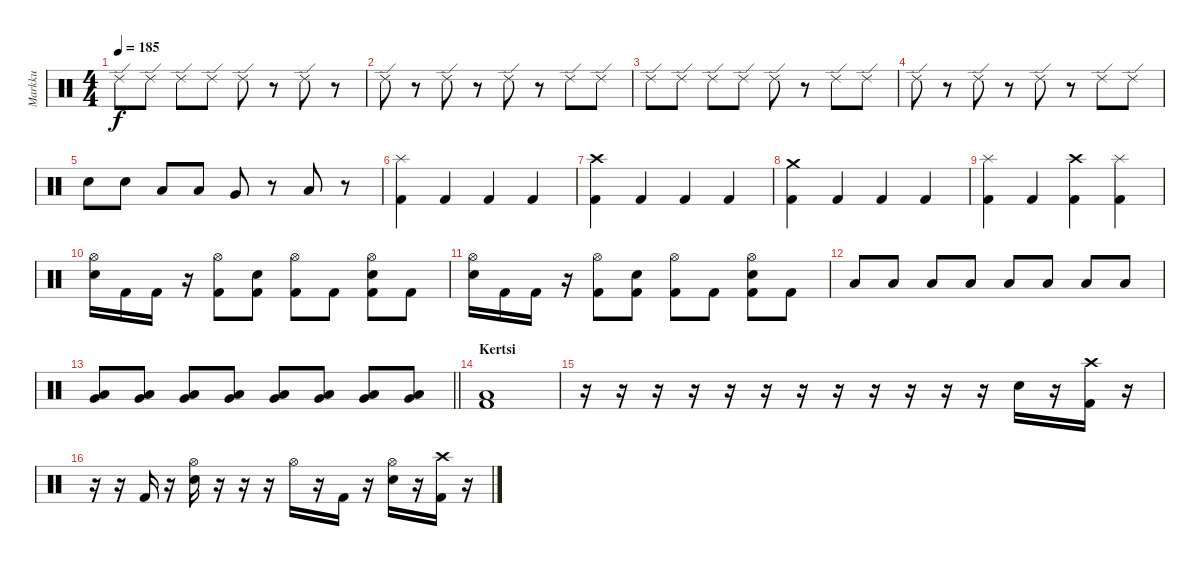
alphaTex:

\track ("Markku" "Markku") {instrument percussion}
\staff {score}
\articulation defaults
\ts (4 4)
\tempo 185
\clef neutral
\ks c "Ride (edge) 2".8{dy f} "Ride (edge) 2".8 "Ride (edge) 2".8 "Ride (edge) 2".8 "Ride (edge) 2".8
r.8 "Ride (edge) 2".8 r.8 |
"Ride (edge) 2".8 r.8 "Ride (edge) 2".8 r.8 "Ride (edge) 2".8 r.8 "Ride (edge) 2".8 "Ride (edge) 2".8 |
"Ride (edge) 2".8 "Ride (edge) 2".8 "Ride (edge) 2".8 "Ride (edge) 2".8 "Ride (edge) 2".8 r.8 "Ride (edge) 2".8 "Ride (edge) 2".8 |
"Ride (edge) 2".8 r.8 "Ride (edge) 2".8 r.8 "Ride (edge) 2".8 r.8 "Ride (edge) 2".8 "Ride (edge) 2".8 |
"Snare (hit) 2".8 "Snare (hit) 2".8 "Low Tom (hit)".8 "Low Tom (hit)".8 "Very Low Tom (hit)".8 r.8 "Low Floor Tom (hit)".8 r.8 |
("Kick (hit) 2" "Splash (hit)").4 "Kick (hit) 2".4 "Kick (hit) 2".4 "Kick (hit) 2".4 |
("Kick (hit) 2" "Crash high (hit)").4 "Kick (hit) 2".4 "Kick (hit) 2".4 "Kick (hit) 2".4 |
("Kick (hit) 2" "Crash medium (hit)").4 "Kick (hit) 2".4 "Kick (hit) 2".4 "Kick (hit) 2".4 |
("Kick (hit) 2" "Splash (hit)").4 "Kick (hit) 2".4 ("Kick (hit) 2" "Crash high (hit)").4 ("Kick (hit) 2" "Splash (hit)").4 |
("Snare (hit) 2" "Hi-Hat (open)").16 "Kick (hit) 2".16 "Kick (hit) 2".16 r.16 ("Kick (hit) 2" "Hi-Hat (open)").8 ("Kick (hit) 2" "Snare (hit) 2").8 ("Kick (hit) 2" "Hi-Hat (open)").8 "Kick (hit) 2".8 ("Kick (hit) 2" "Snare (hit) 2" "Hi-Hat (open)").8 "Kick (hit) 2".8 |
("Snare (hit) 2" "Hi-Hat (open)").16 "Kick (hit) 2".16 "Kick (hit) 2".16 r.16 ("Kick (hit) 2" "Hi-Hat (open)").8 ("Kick (hit) 2" "Snare (hit) 2").8 ("Kick (hit) 2" "Hi-Hat (open)").8 "Kick (hit) 2".8 ("Kick (hit) 2" "Snare (hit) 2" "Hi-Hat (open)").8 "Kick (hit) 2".8 |
"Low Tom (hit)".8 "Low Tom (hit)".8 "Low Tom (hit)".8 "Low Tom (hit)".8 "Low Tom (hit)".8 "Low Tom (hit)".8 "Low Tom (hit)".8 "Low Tom (hit)".8 |
\barLineRight lightlight
("Low Tom (hit)" "Very Low Tom (hit)").8 ("Low Tom (hit)" "Very Low Tom (hit)").8 ("Low Tom (hit)" "Very Low Tom (hit)").8 ("Low Tom (hit)" "Very Low Tom (hit)").8 ("Low Tom (hit)" "Very Low Tom (hit)").8 ("Low Tom (hit)" "Very Low Tom (hit)").8 ("Low Tom (hit)" "Very Low Tom (hit)").8 ("Low Tom (hit)" "Very Low Tom (hit)").8 |
\section ("" "Kertsi")
("Kick (hit) 2" "Low Tom (hit)").1 |
r.16 r.16 r.16 r.16 r.16 r.16 r.16 r.16 r.16 r.16 r.16 r.16 "Snare (hit) 2".16 r.16 ("Kick (hit) 2" "Crash high (hit)").16 r.16 |
r.16 r.16 "Kick (hit) 2".16 r.16 ("Snare (hit) 2" "Hi-Hat (open)").16 r.16 r.16 r.16 "Hi-Hat (open)".16 r.16 "Kick (hit) 2".16 r.16 ("Snare (hit) 2" "Hi-Hat (open)").16 r.16 ("Kick (hit) 2" "Crash high (hit)").16 r.16
